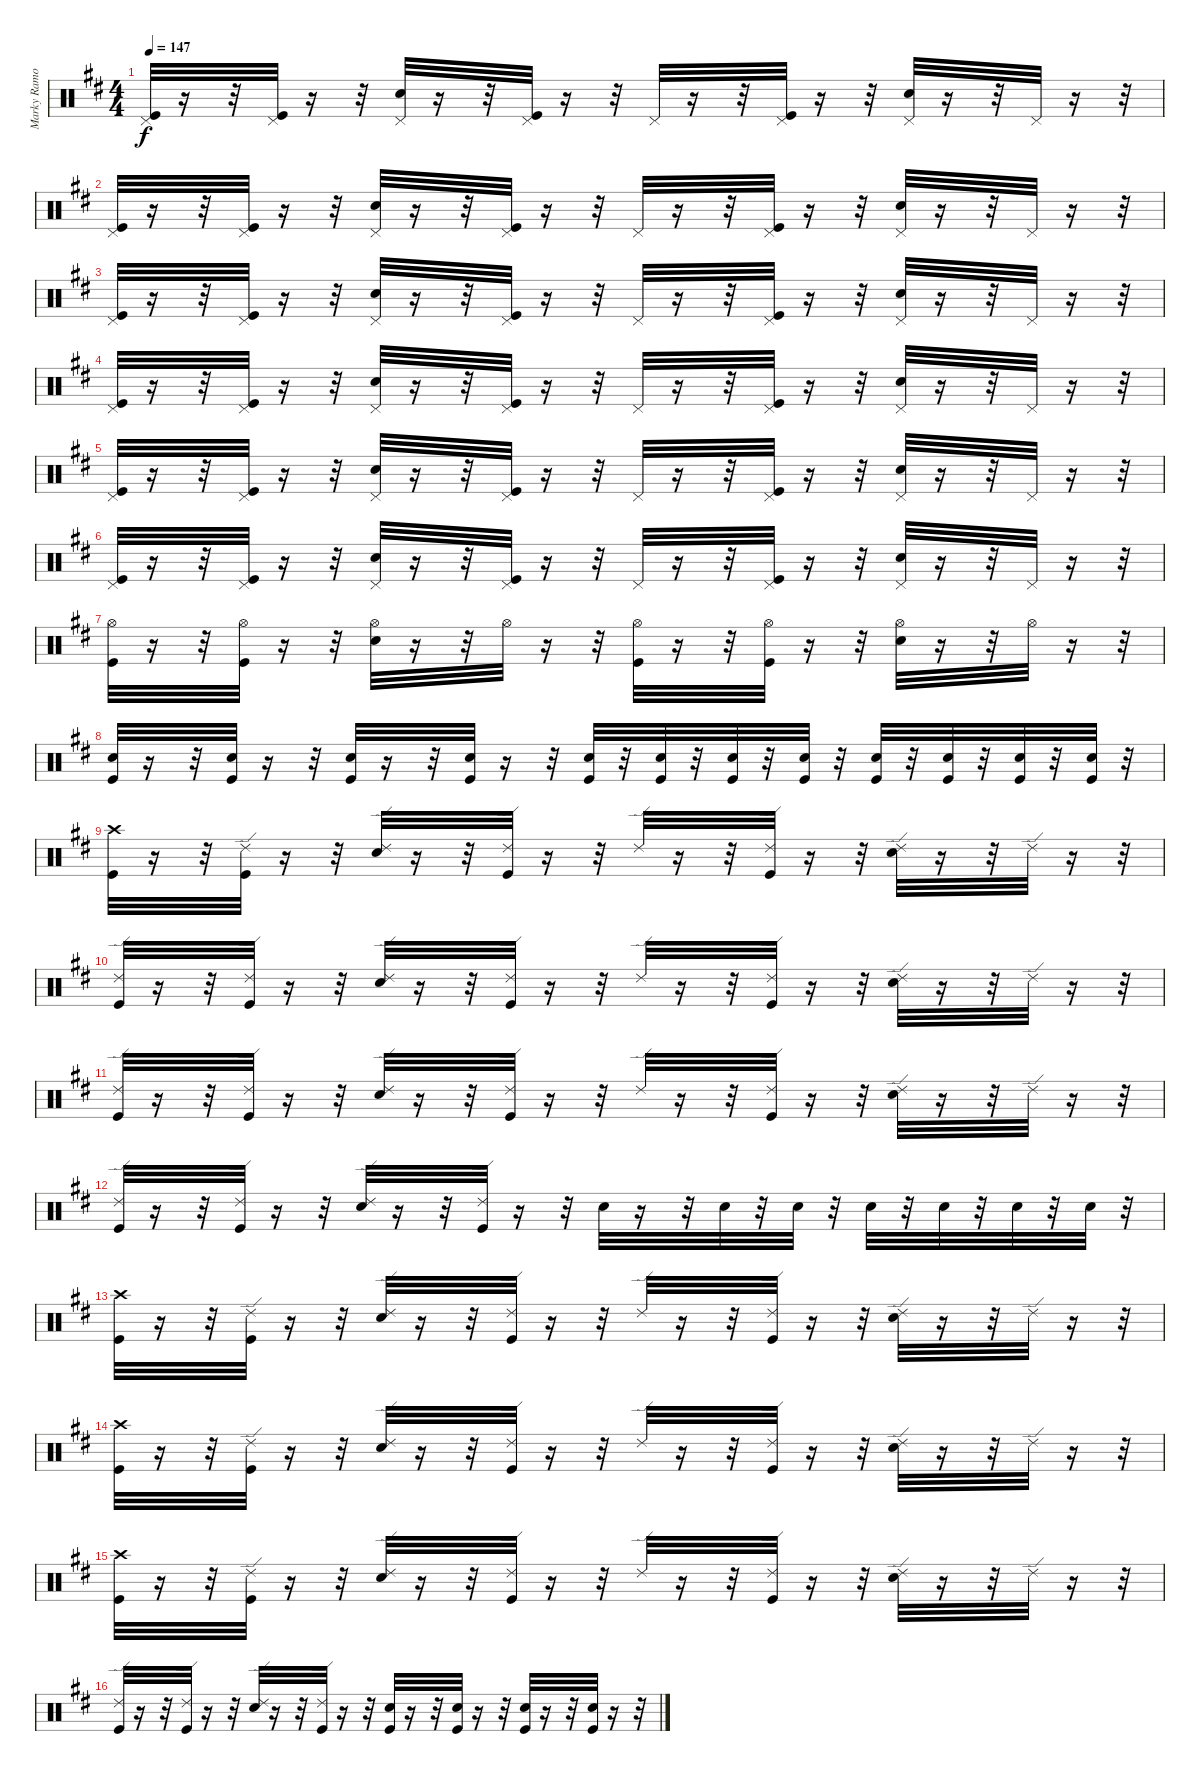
\track ("Marky Ramone" "Marky Ramo") {instrument percussion}
\staff {score}
\articulation defaults
\ts (4 4)
\tempo 147
\clef neutral
\ks d
("Pedal Hi-Hat (hit)" "Kick (hit)").32{dy f} r.16 r.32 ("Pedal Hi-Hat (hit)" "Kick (hit)").32 r.16 r.32 ("Pedal Hi-Hat (hit)" "Electric Snare (hit)").32 r.16 r.32 ("Pedal Hi-Hat (hit)" "Kick (hit)").32 r.16 r.32 "Pedal Hi-Hat (hit)".32 r.16 r.32 ("Pedal Hi-Hat (hit)" "Kick (hit)").32 r.16 r.32 ("Pedal Hi-Hat (hit)" "Electric Snare (hit)").32 r.16 r.32 "Pedal Hi-Hat (hit)".32 r.16 r.32 |
("Pedal Hi-Hat (hit)" "Kick (hit)").32 r.16 r.32 ("Pedal Hi-Hat (hit)" "Kick (hit)").32 r.16 r.32 ("Pedal Hi-Hat (hit)" "Electric Snare (hit)").32 r.16 r.32 ("Pedal Hi-Hat (hit)" "Kick (hit)").32 r.16 r.32 "Pedal Hi-Hat (hit)".32 r.16 r.32 ("Pedal Hi-Hat (hit)" "Kick (hit)").32 r.16 r.32 ("Pedal Hi-Hat (hit)" "Electric Snare (hit)").32 r.16 r.32 "Pedal Hi-Hat (hit)".32 r.16 r.32 |
("Pedal Hi-Hat (hit)" "Kick (hit)").32 r.16 r.32 ("Pedal Hi-Hat (hit)" "Kick (hit)").32 r.16 r.32 ("Pedal Hi-Hat (hit)" "Electric Snare (hit)").32 r.16 r.32 ("Pedal Hi-Hat (hit)" "Kick (hit)").32 r.16 r.32 "Pedal Hi-Hat (hit)".32 r.16 r.32 ("Pedal Hi-Hat (hit)" "Kick (hit)").32 r.16 r.32 ("Pedal Hi-Hat (hit)" "Electric Snare (hit)").32 r.16 r.32 "Pedal Hi-Hat (hit)".32 r.16 r.32 |
("Pedal Hi-Hat (hit)" "Kick (hit)").32 r.16 r.32 ("Pedal Hi-Hat (hit)" "Kick (hit)").32 r.16 r.32 ("Pedal Hi-Hat (hit)" "Electric Snare (hit)").32 r.16 r.32 ("Pedal Hi-Hat (hit)" "Kick (hit)").32 r.16 r.32 "Pedal Hi-Hat (hit)".32 r.16 r.32 ("Pedal Hi-Hat (hit)" "Kick (hit)").32 r.16 r.32 ("Pedal Hi-Hat (hit)" "Electric Snare (hit)").32 r.16 r.32 "Pedal Hi-Hat (hit)".32 r.16 r.32 |
("Pedal Hi-Hat (hit)" "Kick (hit)").32 r.16 r.32 ("Pedal Hi-Hat (hit)" "Kick (hit)").32 r.16 r.32 ("Pedal Hi-Hat (hit)" "Electric Snare (hit)").32 r.16 r.32 ("Pedal Hi-Hat (hit)" "Kick (hit)").32 r.16 r.32 "Pedal Hi-Hat (hit)".32 r.16 r.32 ("Pedal Hi-Hat (hit)" "Kick (hit)").32 r.16 r.32 ("Pedal Hi-Hat (hit)" "Electric Snare (hit)").32 r.16 r.32 "Pedal Hi-Hat (hit)".32 r.16 r.32 |
("Pedal Hi-Hat (hit)" "Kick (hit)").32 r.16 r.32 ("Pedal Hi-Hat (hit)" "Kick (hit)").32 r.16 r.32 ("Pedal Hi-Hat (hit)" "Electric Snare (hit)").32 r.16 r.32 ("Pedal Hi-Hat (hit)" "Kick (hit)").32 r.16 r.32 "Pedal Hi-Hat (hit)".32 r.16 r.32 ("Pedal Hi-Hat (hit)" "Kick (hit)").32 r.16 r.32 ("Pedal Hi-Hat (hit)" "Electric Snare (hit)").32 r.16 r.32 "Pedal Hi-Hat (hit)".32 r.16 r.32 |
("Hi-Hat (open)" "Kick (hit)").32 r.16 r.32 ("Hi-Hat (open)" "Kick (hit)").32 r.16 r.32 ("Hi-Hat (open)" "Electric Snare (hit)").32 r.16 r.32 "Hi-Hat (open)".32 r.16 r.32 ("Hi-Hat (open)" "Kick (hit)").32 r.16 r.32 ("Hi-Hat (open)" "Kick (hit)").32 r.16 r.32 ("Hi-Hat (open)" "Electric Snare (hit)").32 r.16 r.32 "Hi-Hat (open)".32 r.16 r.32 |
("Kick (hit)" "Electric Snare (hit)").32 r.16 r.32 ("Kick (hit)" "Electric Snare (hit)").32 r.16 r.32 ("Kick (hit)" "Electric Snare (hit)").32 r.16 r.32 ("Kick (hit)" "Electric Snare (hit)").32 r.16 r.32 ("Kick (hit)" "Electric Snare (hit)").32 r.32 ("Kick (hit)" "Electric Snare (hit)").32 r.32 ("Kick (hit)" "Electric Snare (hit)").32 r.32 ("Kick (hit)" "Electric Snare (hit)").32 r.32 ("Kick (hit)" "Electric Snare (hit)").32 r.32 ("Kick (hit)" "Electric Snare (hit)").32 r.32 ("Kick (hit)" "Electric Snare (hit)").32 r.32 ("Kick (hit)" "Electric Snare (hit)").32 r.32 |
("Crash high (hit)" "Kick (hit)").32 r.16 r.32 ("Ride (edge) 2" "Kick (hit)").32 r.16 r.32 ("Ride (edge) 2" "Electric Snare (hit)").32 r.16 r.32 ("Ride (edge) 2" "Kick (hit)").32 r.16 r.32 "Ride (edge) 2".32 r.16 r.32 ("Ride (edge) 2" "Kick (hit)").32 r.16 r.32 ("Ride (edge) 2" "Electric Snare (hit)").32 r.16 r.32 "Ride (edge) 2".32 r.16 r.32 |
("Ride (edge) 2" "Kick (hit)").32 r.16 r.32 ("Ride (edge) 2" "Kick (hit)").32 r.16 r.32 ("Electric Snare (hit)" "Ride (edge) 2").32 r.16 r.32 ("Kick (hit)" "Ride (edge) 2").32 r.16 r.32 "Ride (edge) 2".32 r.16 r.32 ("Kick (hit)" "Ride (edge) 2").32 r.16 r.32 ("Ride (edge) 2" "Electric Snare (hit)").32 r.16 r.32 "Ride (edge) 2".32 r.16 r.32 |
("Ride (edge) 2" "Kick (hit)").32 r.16 r.32 ("Ride (edge) 2" "Kick (hit)").32 r.16 r.32 ("Ride (edge) 2" "Electric Snare (hit)").32 r.16 r.32 ("Ride (edge) 2" "Kick (hit)").32 r.16 r.32 "Ride (edge) 2".32 r.16 r.32 ("Ride (edge) 2" "Kick (hit)").32 r.16 r.32 ("Ride (edge) 2" "Electric Snare (hit)").32 r.16 r.32 "Ride (edge) 2".32 r.16 r.32 |
("Ride (edge) 2" "Kick (hit)").32 r.16 r.32 ("Ride (edge) 2" "Kick (hit)").32 r.16 r.32 ("Ride (edge) 2" "Electric Snare (hit)").32 r.16 r.32 ("Ride (edge) 2" "Kick (hit)").32 r.16 r.32 "Electric Snare (hit)".32 r.16 r.32 "Electric Snare (hit)".32 r.32 "Electric Snare (hit)".32 r.32 "Electric Snare (hit)".32 r.32 "Electric Snare (hit)".32 r.32 "Electric Snare (hit)".32 r.32 "Electric Snare (hit)".32 r.32 |
("Kick (hit)" "Crash high (hit)").32 r.16 r.32 ("Ride (edge) 2" "Kick (hit)").32 r.16 r.32 ("Ride (edge) 2" "Electric Snare (hit)").32 r.16 r.32 ("Ride (edge) 2" "Kick (hit)").32 r.16 r.32 "Ride (edge) 2".32 r.16 r.32 ("Ride (edge) 2" "Kick (hit)").32 r.16 r.32 ("Ride (edge) 2" "Electric Snare (hit)").32 r.16 r.32 "Ride (edge) 2".32 r.16 r.32 |
("Crash high (hit)" "Kick (hit)").32 r.16 r.32 ("Ride (edge) 2" "Kick (hit)").32 r.16 r.32 ("Ride (edge) 2" "Electric Snare (hit)").32 r.16 r.32 ("Ride (edge) 2" "Kick (hit)").32 r.16 r.32 "Ride (edge) 2".32 r.16 r.32 ("Ride (edge) 2" "Kick (hit)").32 r.16 r.32 ("Ride (edge) 2" "Electric Snare (hit)").32 r.16 r.32 "Ride (edge) 2".32 r.16 r.32 |
("Kick (hit)" "Crash high (hit)").32 r.16 r.32 ("Ride (edge) 2" "Kick (hit)").32 r.16 r.32 ("Ride (edge) 2" "Electric Snare (hit)").32 r.16 r.32 ("Ride (edge) 2" "Kick (hit)").32 r.16 r.32 "Ride (edge) 2".32 r.16 r.32 ("Ride (edge) 2" "Kick (hit)").32 r.16 r.32 ("Ride (edge) 2" "Electric Snare (hit)").32 r.16 r.32 "Ride (edge) 2".32 r.16 r.32 |
("Ride (edge) 2" "Kick (hit)").32 r.16 r.32 ("Ride (edge) 2" "Kick (hit)").32 r.16 r.32 ("Ride (edge) 2" "Electric Snare (hit)").32 r.16 r.32 ("Ride (edge) 2" "Kick (hit)").32 r.16 r.32 ("Kick (hit)" "Electric Snare (hit)").32 r.16 r.32 ("Kick (hit)" "Electric Snare (hit)").32 r.16 r.32 ("Kick (hit)" "Electric Snare (hit)").32 r.16 r.32 ("Kick (hit)" "Electric Snare (hit)").32 r.16 r.32
